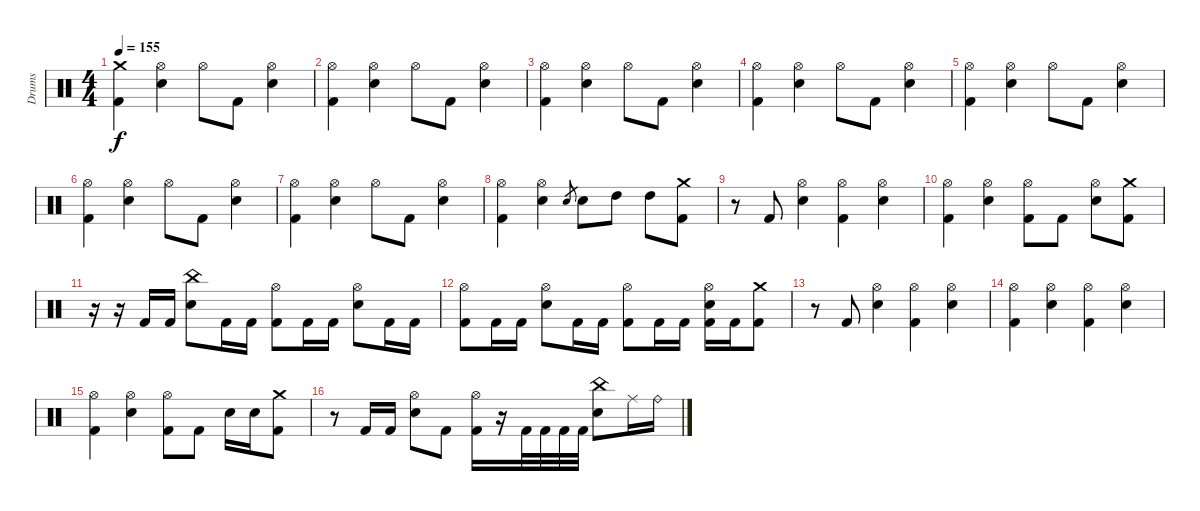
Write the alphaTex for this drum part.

\track ("Drums" "Drums") {instrument percussion}
\staff {score}
\articulation defaults
\ts (4 4)
\tempo 155
\clef neutral
\ks c
("Crash medium (hit)" "Kick (hit) 2").4{dy f} ("Hi-Hat (open)" "Snare (hit) 2").4 "Hi-Hat (open)".8 "Kick (hit) 2".8 ("Hi-Hat (open)" "Snare (hit) 2").4 |
("Hi-Hat (open)" "Kick (hit) 2").4 ("Hi-Hat (open)" "Snare (hit) 2").4 "Hi-Hat (open)".8 "Kick (hit) 2".8 ("Hi-Hat (open)" "Snare (hit) 2").4 |
("Hi-Hat (open)" "Kick (hit) 2").4 ("Hi-Hat (open)" "Snare (hit) 2").4 "Hi-Hat (open)".8 "Kick (hit) 2".8 ("Hi-Hat (open)" "Snare (hit) 2").4 |
("Hi-Hat (open)" "Kick (hit) 2").4 ("Hi-Hat (open)" "Snare (hit) 2").4 "Hi-Hat (open)".8 "Kick (hit) 2".8 ("Hi-Hat (open)" "Snare (hit) 2").4 |
("Hi-Hat (open)" "Kick (hit) 2").4 ("Hi-Hat (open)" "Snare (hit) 2").4 "Hi-Hat (open)".8 "Kick (hit) 2".8 ("Hi-Hat (open)" "Snare (hit) 2").4 |
("Hi-Hat (open)" "Kick (hit) 2").4 ("Hi-Hat (open)" "Snare (hit) 2").4 "Hi-Hat (open)".8 "Kick (hit) 2".8 ("Hi-Hat (open)" "Snare (hit) 2").4 |
("Hi-Hat (open)" "Kick (hit) 2").4 ("Hi-Hat (open)" "Snare (hit) 2").4 "Hi-Hat (open)".8 "Kick (hit) 2".8 ("Hi-Hat (open)" "Snare (hit) 2").4 |
("Hi-Hat (open)" "Kick (hit) 2").4 ("Hi-Hat (open)" "Snare (hit) 2").4 "Snare (hit) 2".8{gr} "Snare (hit) 2".8 "High Tom (hit)".8 "High Tom (hit)".8 ("Crash medium (hit)" "Kick (hit) 2").8 |
r.8 "Kick (hit) 2".8 ("Hi-Hat (open)" "Snare (hit) 2").4 ("Hi-Hat (open)" "Kick (hit) 2").4 ("Hi-Hat (open)" "Snare (hit) 2").4 |
("Hi-Hat (open)" "Kick (hit) 2").4 ("Hi-Hat (open)" "Snare (hit) 2").4 ("Hi-Hat (open)" "Kick (hit) 2").8 "Kick (hit) 2".8 ("Hi-Hat (open)" "Snare (hit) 2").8 ("Crash medium (hit)" "Kick (hit) 2").8 |
r.16 r.16 "Kick (hit) 2".16 "Kick (hit) 2".16 ("China (hit)" "Snare (hit) 2").8 "Kick (hit) 2".16 "Kick (hit) 2".16 ("Hi-Hat (open)" "Kick (hit) 2").8 "Kick (hit) 2".16 "Kick (hit) 2".16 ("Hi-Hat (open)" "Snare (hit) 2").8 "Kick (hit) 2".16 "Kick (hit) 2".16 |
("Hi-Hat (open)" "Kick (hit) 2").8 "Kick (hit) 2".16 "Kick (hit) 2".16 ("Hi-Hat (open)" "Snare (hit) 2").8 "Kick (hit) 2".16 "Kick (hit) 2".16 ("Hi-Hat (open)" "Kick (hit) 2").8 "Kick (hit) 2".16 "Kick (hit) 2".16 ("Hi-Hat (open)" "Snare (hit) 2" "Kick (hit) 2").16 "Kick (hit) 2".16 ("Crash medium (hit)" "Kick (hit) 2").8 |
r.8 "Kick (hit) 2".8 ("Hi-Hat (open)" "Snare (hit) 2").4 ("Hi-Hat (open)" "Kick (hit) 2").4 ("Hi-Hat (open)" "Snare (hit) 2").4 |
("Hi-Hat (open)" "Kick (hit) 2").4 ("Hi-Hat (open)" "Snare (hit) 2").4 ("Hi-Hat (open)" "Kick (hit) 2").4 ("Hi-Hat (open)" "Snare (hit) 2").4 |
("Hi-Hat (open)" "Kick (hit) 2").4 ("Hi-Hat (open)" "Snare (hit) 2").4 ("Hi-Hat (open)" "Kick (hit) 2").8 "Kick (hit) 2".8 "Snare (hit) 2".16 "Snare (hit) 2".16 ("Crash medium (hit)" "Kick (hit) 2").8 |
r.8 "Kick (hit) 2".16 "Kick (hit) 2".16 ("Hi-Hat (open)" "Snare (hit) 2").8 "Kick (hit) 2".8 ("Hi-Hat (open)" "Kick (hit) 2").16 r.16 "Kick (hit) 2".32 "Kick (hit) 2".32 "Kick (hit) 2".32 "Kick (hit) 2".32 ("China (hit)" "Snare (hit) 2").8 "Ride (middle)".16 "Ride (bell)".16
